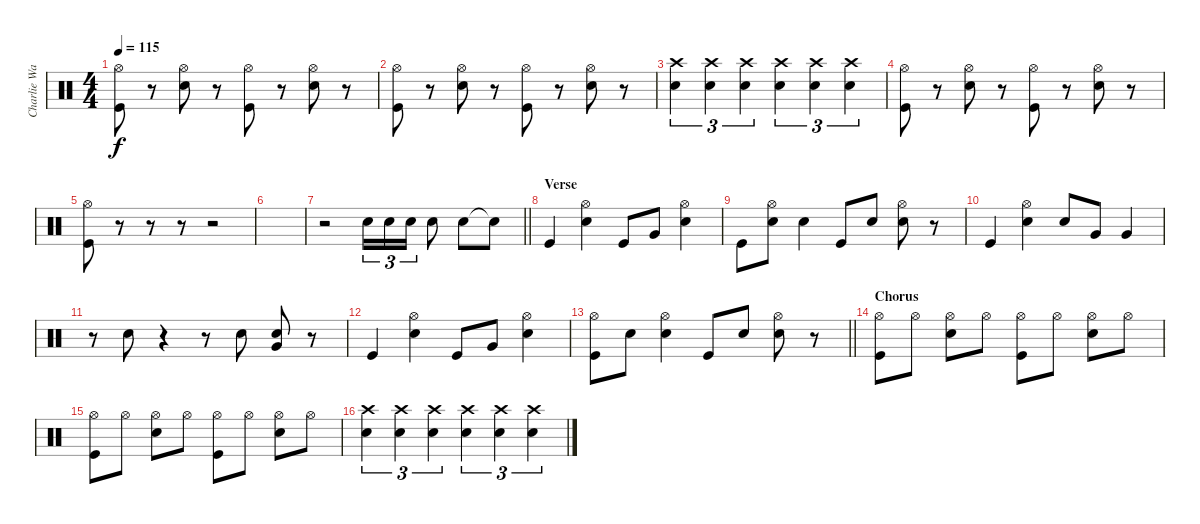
\track ("Charlie Watts" "Charlie Wa") {instrument percussion}
\staff {score}
\articulation defaults
\ts (4 4)
\tempo 115
\clef neutral
\ks c
("Hi-Hat (open)" "Kick (hit)").8{dy f} r.8 ("Hi-Hat (open)" "Snare (hit) 2").8 r.8 ("Hi-Hat (open)" "Kick (hit)").8 r.8 ("Hi-Hat (open)" "Snare (hit) 2").8 r.8 |
("Hi-Hat (open)" "Kick (hit)").8 r.8 ("Hi-Hat (open)" "Snare (hit) 2").8 r.8 ("Hi-Hat (open)" "Kick (hit)").8 r.8 ("Hi-Hat (open)" "Snare (hit) 2").8 r.8 |
("Crash high (hit)" "Snare (hit) 2").4{tu (3 2)} ("Crash high (hit)" "Snare (hit) 2").4{tu (3 2)} ("Crash high (hit)" "Snare (hit) 2").4{tu (3 2)} ("Crash high (hit)" "Snare (hit) 2").4{tu (3 2)} ("Crash high (hit)" "Snare (hit) 2").4{tu (3 2)} ("Crash high (hit)" "Snare (hit) 2").4{tu (3 2)} |
("Hi-Hat (open)" "Kick (hit)").8 r.8 ("Hi-Hat (open)" "Snare (hit) 2").8 r.8 ("Hi-Hat (open)" "Kick (hit)").8 r.8 ("Hi-Hat (open)" "Snare (hit) 2").8 r.8 |
("Hi-Hat (open)" "Kick (hit)").8 r.8 r.8 r.8 r.2 |
|
\barLineRight lightlight
r.2 "Snare (hit) 2".16{tu (3 2)} "Snare (hit) 2".16{tu (3 2)} "Snare (hit) 2".16{tu (3 2)} "Snare (hit) 2".8 "Snare (hit) 2".8 "Snare (hit) 2"{t}.8 |
\section ("" "Verse")
"Kick (hit)".4 ("Hi-Hat (open)" "Snare (hit) 2").4 "Kick (hit)".8 "Very Low Tom (hit)".8 ("Hi-Hat (open)" "Snare (hit) 2").4 |
"Kick (hit)".8 ("Hi-Hat (open)" "Snare (hit) 2").8 "Snare (hit) 2".4 "Kick (hit)".8 "Snare (hit) 2".8 ("Hi-Hat (open)" "Snare (hit) 2").8 r.8 |
"Kick (hit)".4 ("Hi-Hat (open)" "Snare (hit) 2").4 "Snare (hit) 2".8 "Very Low Tom (hit)".8 "Very Low Tom (hit)".4 |
r.8 "Snare (hit) 2".8 r.4 r.8 "Snare (hit) 2".8 ("Very Low Tom (hit)" "Snare (hit) 2").8 r.8 |
"Kick (hit)".4 ("Hi-Hat (open)" "Snare (hit) 2").4 "Kick (hit)".8 "Very Low Tom (hit)".8 ("Hi-Hat (open)" "Snare (hit) 2").4 |
\barLineRight lightlight
("Hi-Hat (open)" "Kick (hit)").8 "Snare (hit) 2".8 ("Hi-Hat (open)" "Snare (hit) 2").4 "Kick (hit)".8 "Snare (hit) 2".8 ("Hi-Hat (open)" "Snare (hit) 2").8 r.8 |
\section ("" "Chorus")
("Hi-Hat (open)" "Kick (hit)").8 "Hi-Hat (open)".8 ("Hi-Hat (open)" "Snare (hit) 2").8 "Hi-Hat (open)".8 ("Hi-Hat (open)" "Kick (hit)").8 "Hi-Hat (open)".8 ("Hi-Hat (open)" "Snare (hit) 2").8 "Hi-Hat (open)".8 |
("Hi-Hat (open)" "Kick (hit)").8 "Hi-Hat (open)".8 ("Hi-Hat (open)" "Snare (hit) 2").8 "Hi-Hat (open)".8 ("Hi-Hat (open)" "Kick (hit)").8 "Hi-Hat (open)".8 ("Hi-Hat (open)" "Snare (hit) 2").8 "Hi-Hat (open)".8 |
("Crash high (hit)" "Snare (hit) 2").4{tu (3 2)} ("Crash high (hit)" "Snare (hit) 2").4{tu (3 2)} ("Crash high (hit)" "Snare (hit) 2").4{tu (3 2)} ("Crash high (hit)" "Snare (hit) 2").4{tu (3 2)} ("Crash high (hit)" "Snare (hit) 2").4{tu (3 2)} ("Crash high (hit)" "Snare (hit) 2").4{tu (3 2)}
